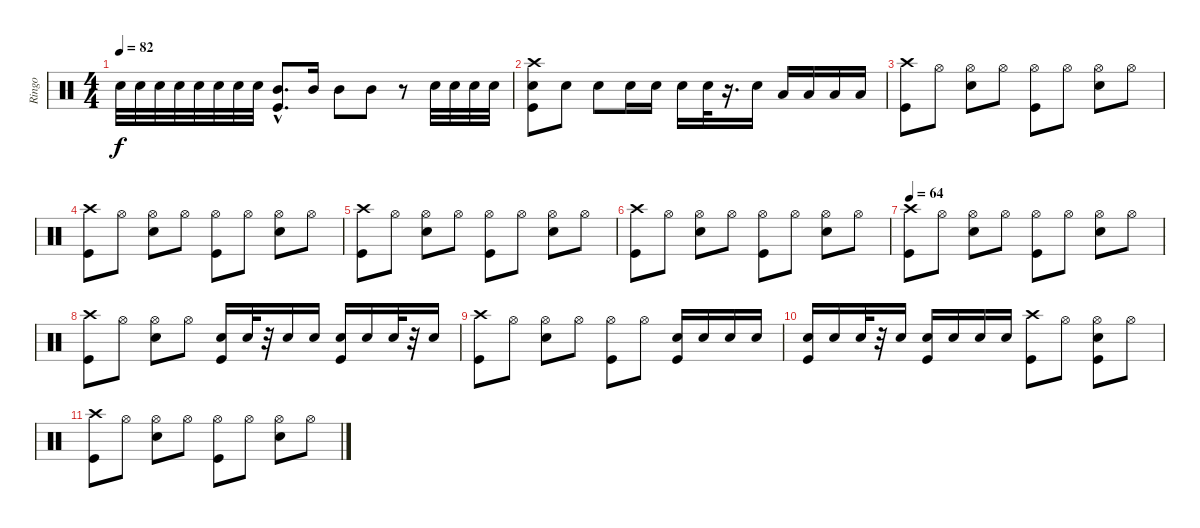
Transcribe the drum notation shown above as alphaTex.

\track ("Ringo" "Ringo") {instrument percussion}
\staff {score}
\articulation defaults
\ts (4 4)
\tempo 82
\clef neutral
\ks c "Electric Snare (hit)".32{dy f} "Electric Snare (hit)".32 "Electric Snare (hit)".32 "Electric Snare (hit)".32 "Electric Snare (hit)".32 "Electric Snare (hit)".32 "Electric Snare (hit)".32 "Electric Snare (hit)".32
("Mid Tom (hit)"{hac} "Kick (hit)").8{d} "Mid Tom (hit)".16 "Mid Tom (hit)".8 "Mid Tom (hit)".8 r.8 "Electric Snare (hit)".32 "Electric Snare (hit)".32 "Electric Snare (hit)".32 "Electric Snare (hit)".32 |
("Electric Snare (hit)" "Kick (hit)" "Crash high (hit)").8 "Electric Snare (hit)".8 "Electric Snare (hit)".8 "Electric Snare (hit)".16 "Electric Snare (hit)".16 "Electric Snare (hit)".16 "Electric Snare (hit)".32 r.16{d} "Electric Snare (hit)".16 "Low Floor Tom (hit)".16 "Low Floor Tom (hit)".16 "Low Floor Tom (hit)".16 "Low Floor Tom (hit)".16 |
("Kick (hit)" "Crash high (hit)").8 "Hi-Hat (open)".8 ("Electric Snare (hit)" "Hi-Hat (open)").8 "Hi-Hat (open)".8 ("Hi-Hat (open)" "Kick (hit)").8 "Hi-Hat (open)".8 ("Electric Snare (hit)" "Hi-Hat (open)").8 "Hi-Hat (open)".8 |
("Kick (hit)" "Crash high (hit)").8 "Hi-Hat (open)".8 ("Electric Snare (hit)" "Hi-Hat (open)").8 "Hi-Hat (open)".8 ("Hi-Hat (open)" "Kick (hit)").8 "Hi-Hat (open)".8 ("Electric Snare (hit)" "Hi-Hat (open)").8 "Hi-Hat (open)".8 |
("Kick (hit)" "Crash high (hit)").8{volume 12} "Hi-Hat (open)".8{volume 12} ("Electric Snare (hit)" "Hi-Hat (open)").8{volume 12} "Hi-Hat (open)".8{volume 12} ("Hi-Hat (open)" "Kick (hit)").8{volume 12} "Hi-Hat (open)".8{volume 12} ("Electric Snare (hit)" "Hi-Hat (open)").8{volume 11} "Hi-Hat (open)".8{volume 11} |
("Kick (hit)" "Crash high (hit)").8{volume 11} "Hi-Hat (open)".8{volume 10} ("Electric Snare (hit)" "Hi-Hat (open)").8{volume 10} "Hi-Hat (open)".8{volume 10} ("Hi-Hat (open)" "Kick (hit)").8{volume 10} "Hi-Hat (open)".8{volume 10} ("Electric Snare (hit)" "Hi-Hat (open)").8{volume 9} "Hi-Hat (open)".8{volume 9} |
\tempo 64
("Kick (hit)" "Crash high (hit)").8{volume 9} "Hi-Hat (open)".8{volume 9} ("Electric Snare (hit)" "Hi-Hat (open)").8{volume 8} "Hi-Hat (open)".8{volume 8} ("Hi-Hat (open)" "Kick (hit)").8{volume 8} "Hi-Hat (open)".8{volume 8} ("Electric Snare (hit)" "Hi-Hat (open)").8{volume 8} "Hi-Hat (open)".8{volume 7} |
("Kick (hit)" "Crash high (hit)").8{volume 7} "Hi-Hat (open)".8{volume 7} ("Electric Snare (hit)" "Hi-Hat (open)").8{volume 7} "Hi-Hat (open)".8{volume 6} ("Kick (hit)" "Electric Snare (hit)").16{volume 6} "Electric Snare (hit)".32 r.32 "Electric Snare (hit)".16{volume 6} "Electric Snare (hit)".16{volume 6} ("Electric Snare (hit)" "Kick (hit)").16{volume 6} "Electric Snare (hit)".16{volume 6} "Electric Snare (hit)".32{volume 6} r.32 "Electric Snare (hit)".16{volume 6} |
("Kick (hit)" "Crash high (hit)").8{volume 5} "Hi-Hat (open)".8{volume 5} ("Electric Snare (hit)" "Hi-Hat (open)").8{volume 5} "Hi-Hat (open)".8{volume 5} ("Hi-Hat (open)" "Kick (hit)").8{volume 4} "Hi-Hat (open)".8{volume 4} ("Electric Snare (hit)" "Kick (hit)").16{volume 4} "Electric Snare (hit)".16{volume 4} "Electric Snare (hit)".16{volume 4} "Electric Snare (hit)".16{volume 4} |
("Electric Snare (hit)" "Kick (hit)").16{volume 4} "Electric Snare (hit)".16{volume 4} "Electric Snare (hit)".32{volume 3} r.32 "Electric Snare (hit)".16{volume 3} ("Electric Snare (hit)" "Kick (hit)").16{volume 3} "Electric Snare (hit)".16 "Electric Snare (hit)".16{volume 3} "Electric Snare (hit)".16{volume 3} ("Crash high (hit)" "Kick (hit)").8{volume 3} "Hi-Hat (open)".8{volume 2} ("Hi-Hat (open)" "Electric Snare (hit)" "Kick (hit)").8{volume 2} "Hi-Hat (open)".8{volume 2} |
("Kick (hit)" "Crash high (hit)").8{volume 2} "Hi-Hat (open)".8{volume 2} ("Electric Snare (hit)" "Hi-Hat (open)").8{volume 1} "Hi-Hat (open)".8{volume 1} ("Hi-Hat (open)" "Kick (hit)").8{volume 1} "Hi-Hat (open)".8{volume 1} ("Electric Snare (hit)" "Hi-Hat (open)").8{volume 0} "Hi-Hat (open)".8{volume 0}
